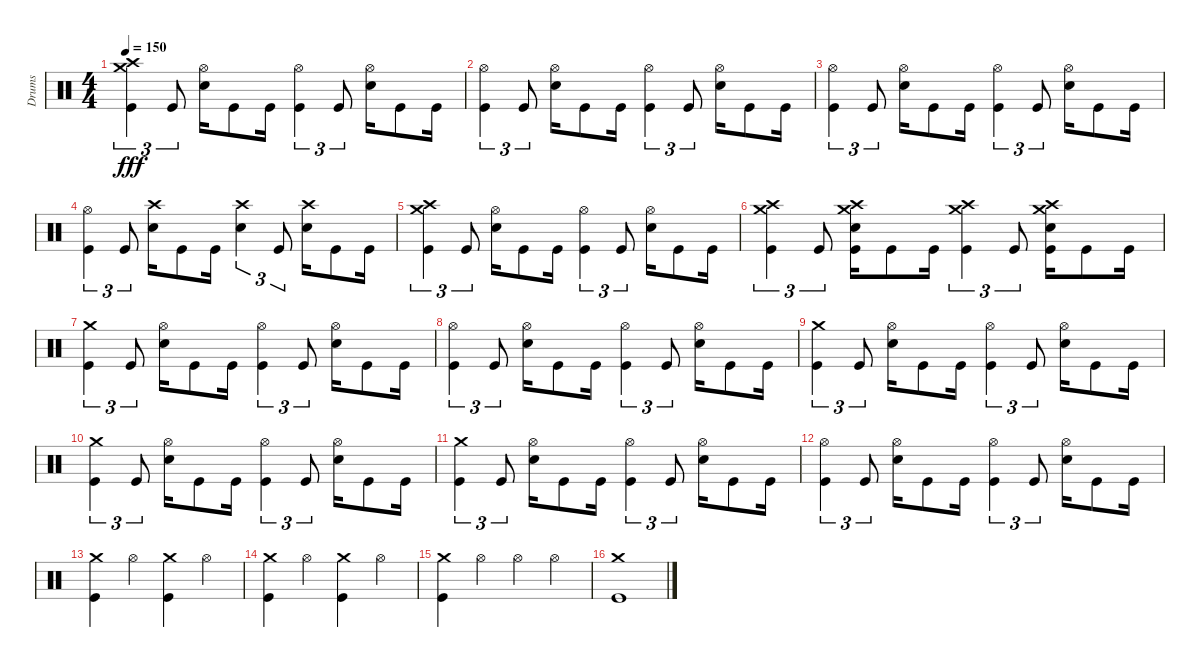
\track ("Drums" "Drums") {instrument percussion}
\staff {score}
\articulation defaults
\ts (4 4)
\tempo 150
\clef neutral
\ks c
("Crash medium (hit)" "Crash high (hit)" "Kick (hit)").4{tu (3 2) dy fff} "Kick (hit)".8{tu (3 2)} ("Hi-Hat (open)" "Snare (hit) 2").16 "Kick (hit)".8 "Kick (hit)".16 ("Hi-Hat (open)" "Kick (hit)").4{tu (3 2)} "Kick (hit)".8{tu (3 2)} ("Hi-Hat (open)" "Snare (hit) 2").16 "Kick (hit)".8 "Kick (hit)".16 |
("Hi-Hat (open)" "Kick (hit)").4{tu (3 2)} "Kick (hit)".8{tu (3 2)} ("Hi-Hat (open)" "Snare (hit) 2").16 "Kick (hit)".8 "Kick (hit)".16 ("Hi-Hat (open)" "Kick (hit)").4{tu (3 2)} "Kick (hit)".8{tu (3 2)} ("Hi-Hat (open)" "Snare (hit) 2").16 "Kick (hit)".8 "Kick (hit)".16 |
("Hi-Hat (open)" "Kick (hit)").4{tu (3 2)} "Kick (hit)".8{tu (3 2)} ("Hi-Hat (open)" "Snare (hit) 2").16 "Kick (hit)".8 "Kick (hit)".16 ("Hi-Hat (open)" "Kick (hit)").4{tu (3 2)} "Kick (hit)".8{tu (3 2)} ("Hi-Hat (open)" "Snare (hit) 2").16 "Kick (hit)".8 "Kick (hit)".16 |
("Hi-Hat (open)" "Kick (hit)").4{tu (3 2)} "Kick (hit)".8{tu (3 2)} ("Crash high (hit)" "Snare (hit) 2").16 "Kick (hit)".8 "Kick (hit)".16 ("Crash high (hit)" "Snare (hit) 2").4{tu (3 2)} "Kick (hit)".8{tu (3 2)} ("Crash high (hit)" "Snare (hit) 2").16 "Kick (hit)".8 "Kick (hit)".16 |
("Crash medium (hit)" "Crash high (hit)" "Kick (hit)").4{tu (3 2)} "Kick (hit)".8{tu (3 2)} ("Hi-Hat (open)" "Snare (hit) 2").16 "Kick (hit)".8 "Kick (hit)".16 ("Hi-Hat (open)" "Kick (hit)").4{tu (3 2)} "Kick (hit)".8{tu (3 2)} ("Hi-Hat (open)" "Snare (hit) 2").16 "Kick (hit)".8 "Kick (hit)".16 |
("Crash medium (hit)" "Crash high (hit)" "Kick (hit)").4{tu (3 2)} "Kick (hit)".8{tu (3 2)} ("Crash medium (hit)" "Crash high (hit)" "Snare (hit) 2" "Kick (hit)").16 "Kick (hit)".8 "Kick (hit)".16 ("Crash medium (hit)" "Crash high (hit)" "Kick (hit)").4{tu (3 2)} "Kick (hit)".8{tu (3 2)} ("Crash medium (hit)" "Crash high (hit)" "Snare (hit) 2" "Kick (hit)").16 "Kick (hit)".8 "Kick (hit)".16 |
("Crash medium (hit)" "Kick (hit)").4{tu (3 2)} "Kick (hit)".8{tu (3 2)} ("Hi-Hat (open)" "Snare (hit) 2").16 "Kick (hit)".8 "Kick (hit)".16 ("Hi-Hat (open)" "Kick (hit)").4{tu (3 2)} "Kick (hit)".8{tu (3 2)} ("Hi-Hat (open)" "Snare (hit) 2").16 "Kick (hit)".8 "Kick (hit)".16 |
("Hi-Hat (open)" "Kick (hit)").4{tu (3 2)} "Kick (hit)".8{tu (3 2)} ("Hi-Hat (open)" "Snare (hit) 2").16 "Kick (hit)".8 "Kick (hit)".16 ("Hi-Hat (open)" "Kick (hit)").4{tu (3 2)} "Kick (hit)".8{tu (3 2)} ("Hi-Hat (open)" "Snare (hit) 2").16 "Kick (hit)".8 "Kick (hit)".16 |
("Crash medium (hit)" "Kick (hit)").4{tu (3 2)} "Kick (hit)".8{tu (3 2)} ("Hi-Hat (open)" "Snare (hit) 2").16 "Kick (hit)".8 "Kick (hit)".16 ("Hi-Hat (open)" "Kick (hit)").4{tu (3 2)} "Kick (hit)".8{tu (3 2)} ("Hi-Hat (open)" "Snare (hit) 2").16 "Kick (hit)".8 "Kick (hit)".16 |
("Crash medium (hit)" "Kick (hit)").4{tu (3 2)} "Kick (hit)".8{tu (3 2)} ("Hi-Hat (open)" "Snare (hit) 2").16 "Kick (hit)".8 "Kick (hit)".16 ("Hi-Hat (open)" "Kick (hit)").4{tu (3 2)} "Kick (hit)".8{tu (3 2)} ("Hi-Hat (open)" "Snare (hit) 2").16 "Kick (hit)".8 "Kick (hit)".16 |
("Crash medium (hit)" "Kick (hit)").4{tu (3 2)} "Kick (hit)".8{tu (3 2)} ("Hi-Hat (open)" "Snare (hit) 2").16 "Kick (hit)".8 "Kick (hit)".16 ("Hi-Hat (open)" "Kick (hit)").4{tu (3 2)} "Kick (hit)".8{tu (3 2)} ("Hi-Hat (open)" "Snare (hit) 2").16 "Kick (hit)".8 "Kick (hit)".16 |
("Hi-Hat (open)" "Kick (hit)").4{tu (3 2)} "Kick (hit)".8{tu (3 2)} ("Hi-Hat (open)" "Snare (hit) 2").16 "Kick (hit)".8 "Kick (hit)".16 ("Hi-Hat (open)" "Kick (hit)").4{tu (3 2)} "Kick (hit)".8{tu (3 2)} ("Hi-Hat (open)" "Snare (hit) 2").16 "Kick (hit)".8 "Kick (hit)".16 |
("Crash medium (hit)" "Kick (hit)").4 "Hi-Hat (open)".4 ("Crash medium (hit)" "Kick (hit)").4 "Hi-Hat (open)".4 |
("Crash medium (hit)" "Kick (hit)").4 "Hi-Hat (open)".4 ("Crash medium (hit)" "Kick (hit)").4 "Hi-Hat (open)".4 |
("Crash medium (hit)" "Kick (hit)").4 "Hi-Hat (open)".4 "Hi-Hat (open)".4 "Hi-Hat (open)".4 |
("Crash medium (hit)" "Kick (hit)").1
